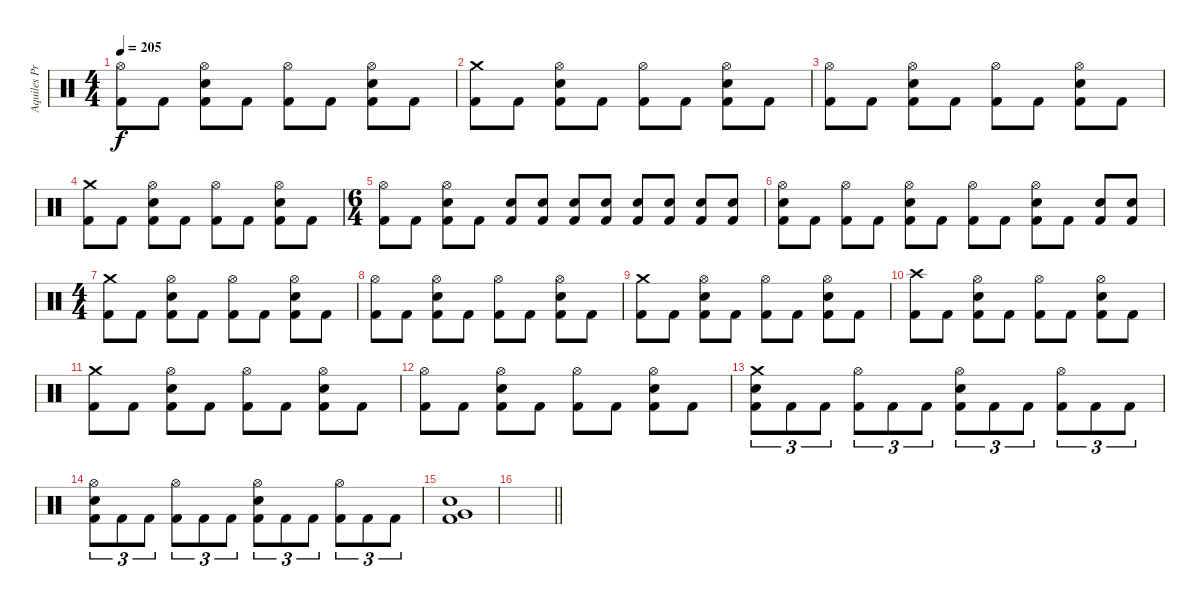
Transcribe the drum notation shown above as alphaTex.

\track ("Aquiles Priester" "Aquiles Pr") {instrument percussion}
\staff {score}
\articulation defaults
\ts (4 4)
\tempo 205
\clef neutral
\ks c
("Hi-Hat (open)" "Kick (hit) 2").8{dy f} "Kick (hit) 2".8 ("Hi-Hat (open)" "Electric Snare (hit)" "Kick (hit) 2").8 "Kick (hit) 2".8 ("Hi-Hat (open)" "Kick (hit) 2").8 "Kick (hit) 2".8 ("Hi-Hat (open)" "Electric Snare (hit)" "Kick (hit) 2").8 "Kick (hit) 2".8 |
("Crash medium (hit)" "Kick (hit) 2").8 "Kick (hit) 2".8 ("Hi-Hat (open)" "Electric Snare (hit)" "Kick (hit) 2").8 "Kick (hit) 2".8 ("Hi-Hat (open)" "Kick (hit) 2").8 "Kick (hit) 2".8 ("Hi-Hat (open)" "Electric Snare (hit)" "Kick (hit) 2").8 "Kick (hit) 2".8 |
("Hi-Hat (open)" "Kick (hit) 2").8 "Kick (hit) 2".8 ("Hi-Hat (open)" "Electric Snare (hit)" "Kick (hit) 2").8 "Kick (hit) 2".8 ("Hi-Hat (open)" "Kick (hit) 2").8 "Kick (hit) 2".8 ("Hi-Hat (open)" "Electric Snare (hit)" "Kick (hit) 2").8 "Kick (hit) 2".8 |
("Crash medium (hit)" "Kick (hit) 2").8 "Kick (hit) 2".8 ("Hi-Hat (open)" "Electric Snare (hit)" "Kick (hit) 2").8 "Kick (hit) 2".8 ("Hi-Hat (open)" "Kick (hit) 2").8 "Kick (hit) 2".8 ("Hi-Hat (open)" "Electric Snare (hit)" "Kick (hit) 2").8 "Kick (hit) 2".8 |
\ts (6 4)
("Hi-Hat (open)" "Kick (hit) 2").8 "Kick (hit) 2".8 ("Hi-Hat (open)" "Electric Snare (hit)" "Kick (hit) 2").8 "Kick (hit) 2".8 ("Electric Snare (hit)" "Kick (hit) 2").8 ("Electric Snare (hit)" "Kick (hit) 2").8 ("Electric Snare (hit)" "Kick (hit) 2").8 ("Electric Snare (hit)" "Kick (hit) 2").8 ("Electric Snare (hit)" "Kick (hit) 2").8 ("Electric Snare (hit)" "Kick (hit) 2").8 ("Electric Snare (hit)" "Kick (hit) 2").8 ("Electric Snare (hit)" "Kick (hit) 2").8 |
("Hi-Hat (open)" "Electric Snare (hit)" "Kick (hit) 2").8 "Kick (hit) 2".8 ("Hi-Hat (open)" "Kick (hit) 2").8 "Kick (hit) 2".8 ("Hi-Hat (open)" "Electric Snare (hit)" "Kick (hit) 2").8 "Kick (hit) 2".8 ("Hi-Hat (open)" "Kick (hit) 2").8 "Kick (hit) 2".8 ("Hi-Hat (open)" "Electric Snare (hit)" "Kick (hit) 2").8 "Kick (hit) 2".8 ("Electric Snare (hit)" "Kick (hit) 2").8 ("Electric Snare (hit)" "Kick (hit) 2").8 |
\ts (4 4)
("Crash medium (hit)" "Kick (hit) 2").8 "Kick (hit) 2".8 ("Hi-Hat (open)" "Electric Snare (hit)" "Kick (hit) 2").8 "Kick (hit) 2".8 ("Hi-Hat (open)" "Kick (hit) 2").8 "Kick (hit) 2".8 ("Hi-Hat (open)" "Electric Snare (hit)" "Kick (hit) 2").8 "Kick (hit) 2".8 |
("Hi-Hat (open)" "Kick (hit) 2").8 "Kick (hit) 2".8 ("Hi-Hat (open)" "Electric Snare (hit)" "Kick (hit) 2").8 "Kick (hit) 2".8 ("Hi-Hat (open)" "Kick (hit) 2").8 "Kick (hit) 2".8 ("Hi-Hat (open)" "Electric Snare (hit)" "Kick (hit) 2").8 "Kick (hit) 2".8 |
("Crash medium (hit)" "Kick (hit) 2").8 "Kick (hit) 2".8 ("Hi-Hat (open)" "Electric Snare (hit)" "Kick (hit) 2").8 "Kick (hit) 2".8 ("Hi-Hat (open)" "Kick (hit) 2").8 "Kick (hit) 2".8 ("Hi-Hat (open)" "Electric Snare (hit)" "Kick (hit) 2").8 "Kick (hit) 2".8 |
("Crash high (hit)" "Kick (hit) 2").8 "Kick (hit) 2".8 ("Hi-Hat (open)" "Electric Snare (hit)" "Kick (hit) 2").8 "Kick (hit) 2".8 ("Hi-Hat (open)" "Kick (hit) 2").8 "Kick (hit) 2".8 ("Hi-Hat (open)" "Electric Snare (hit)" "Kick (hit) 2").8 "Kick (hit) 2".8 |
("Crash medium (hit)" "Kick (hit) 2").8 "Kick (hit) 2".8 ("Hi-Hat (open)" "Electric Snare (hit)" "Kick (hit) 2").8 "Kick (hit) 2".8 ("Hi-Hat (open)" "Kick (hit) 2").8 "Kick (hit) 2".8 ("Hi-Hat (open)" "Electric Snare (hit)" "Kick (hit) 2").8 "Kick (hit) 2".8 |
("Hi-Hat (open)" "Kick (hit) 2").8 "Kick (hit) 2".8 ("Hi-Hat (open)" "Electric Snare (hit)" "Kick (hit) 2").8 "Kick (hit) 2".8 ("Hi-Hat (open)" "Kick (hit) 2").8 "Kick (hit) 2".8 ("Hi-Hat (open)" "Electric Snare (hit)" "Kick (hit) 2").8 "Kick (hit) 2".8 |
("Crash medium (hit)" "Electric Snare (hit)" "Kick (hit) 2").8{tu (3 2)} "Kick (hit) 2".8{tu (3 2)} "Kick (hit) 2".8{tu (3 2)} ("Hi-Hat (open)" "Kick (hit) 2").8{tu (3 2)} "Kick (hit) 2".8{tu (3 2)} "Kick (hit) 2".8{tu (3 2)} ("Hi-Hat (open)" "Electric Snare (hit)" "Kick (hit) 2").8{tu (3 2)} "Kick (hit) 2".8{tu (3 2)} "Kick (hit) 2".8{tu (3 2)} ("Hi-Hat (open)" "Kick (hit) 2").8{tu (3 2)} "Kick (hit) 2".8{tu (3 2)} "Kick (hit) 2".8{tu (3 2)} |
("Hi-Hat (open)" "Electric Snare (hit)" "Kick (hit) 2").8{tu (3 2)} "Kick (hit) 2".8{tu (3 2)} "Kick (hit) 2".8{tu (3 2)} ("Hi-Hat (open)" "Kick (hit) 2").8{tu (3 2)} "Kick (hit) 2".8{tu (3 2)} "Kick (hit) 2".8{tu (3 2)} ("Hi-Hat (open)" "Electric Snare (hit)" "Kick (hit) 2").8{tu (3 2)} "Kick (hit) 2".8{tu (3 2)} "Kick (hit) 2".8{tu (3 2)} ("Hi-Hat (open)" "Kick (hit) 2").8{tu (3 2)} "Kick (hit) 2".8{tu (3 2)} "Kick (hit) 2".8{tu (3 2)} |
("Very Low Tom (hit)" "Electric Snare (hit)" "Kick (hit) 2").1 |
\barLineRight lightlight
